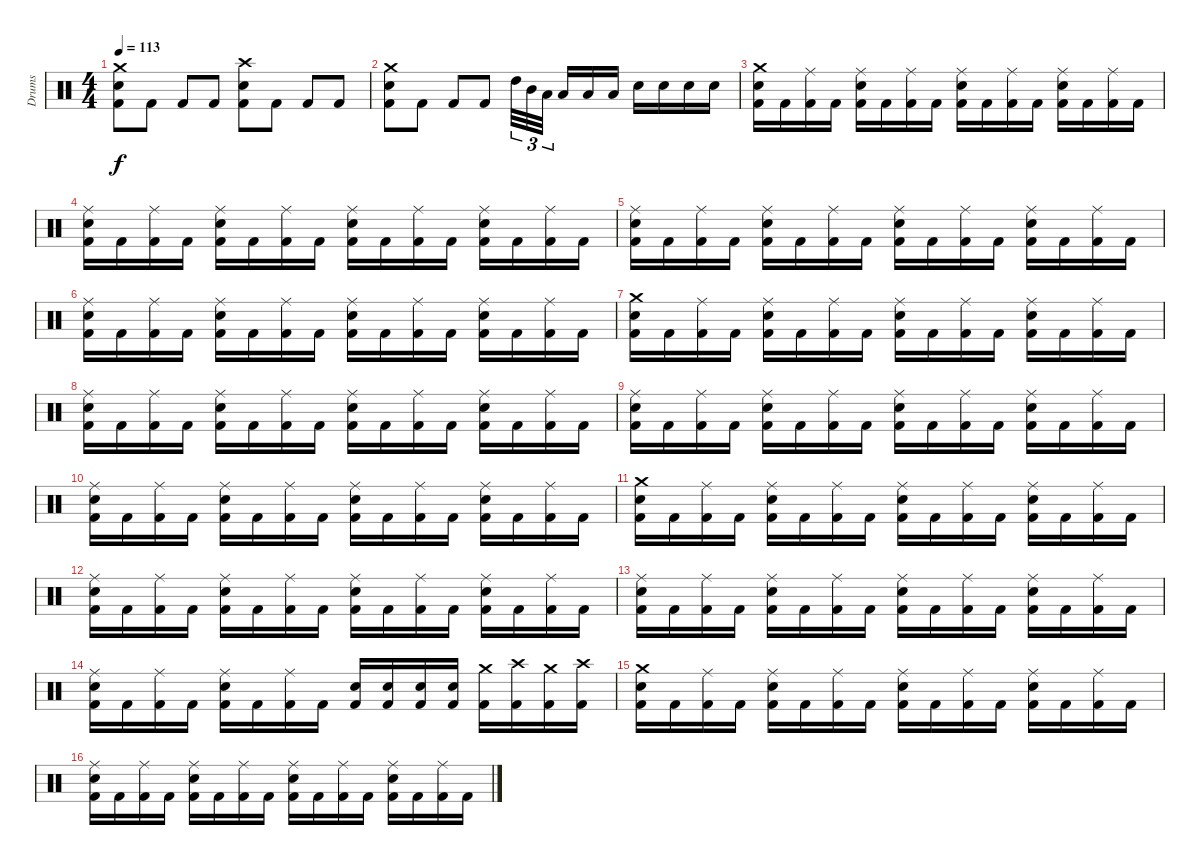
\track ("Drums" "Drums") {instrument percussion}
\staff {score}
\articulation defaults
\ts (4 4)
\tempo 113
\clef neutral
\ks c
("Kick (hit) 2" "Snare (hit) 2" "Crash medium (hit)").8{dy f} "Kick (hit) 2".8 "Kick (hit) 2".8 "Kick (hit) 2".8 ("Kick (hit) 2" "Snare (hit) 2" "Crash high (hit)").8 "Kick (hit) 2".8 "Kick (hit) 2".8 "Kick (hit) 2".8 |
("Kick (hit) 2" "Snare (hit) 2" "Crash medium (hit)").8 "Kick (hit) 2".8 "Kick (hit) 2".8 "Kick (hit) 2".8 "High Tom (hit)".32{tu (3 2)} "Mid Tom (hit)".32{tu (3 2)} "Low Tom (hit)".32{tu (3 2) beam splitsecondary} "Low Tom (hit)".16 "Low Tom (hit)".16 "Low Tom (hit)".16 "Snare (hit) 2".16 "Snare (hit) 2".16 "Snare (hit) 2".16 "Snare (hit) 2".16 |
("Kick (hit) 2" "Snare (hit) 2" "Crash medium (hit)").16 "Kick (hit) 2".16 ("Kick (hit) 2" "Ride (middle)").16 "Kick (hit) 2".16 ("Kick (hit) 2" "Snare (hit) 2" "Ride (middle)").16 "Kick (hit) 2".16 ("Kick (hit) 2" "Ride (middle)").16 "Kick (hit) 2".16 ("Kick (hit) 2" "Snare (hit) 2" "Ride (middle)").16 "Kick (hit) 2".16 ("Kick (hit) 2" "Ride (middle)").16 "Kick (hit) 2".16 ("Kick (hit) 2" "Snare (hit) 2" "Ride (middle)").16 "Kick (hit) 2".16 ("Kick (hit) 2" "Ride (middle)").16 "Kick (hit) 2".16 |
("Kick (hit) 2" "Snare (hit) 2" "Ride (middle)").16 "Kick (hit) 2".16 ("Kick (hit) 2" "Ride (middle)").16 "Kick (hit) 2".16 ("Kick (hit) 2" "Snare (hit) 2" "Ride (middle)").16 "Kick (hit) 2".16 ("Kick (hit) 2" "Ride (middle)").16 "Kick (hit) 2".16 ("Kick (hit) 2" "Snare (hit) 2" "Ride (middle)").16 "Kick (hit) 2".16 ("Kick (hit) 2" "Ride (middle)").16 "Kick (hit) 2".16 ("Kick (hit) 2" "Snare (hit) 2" "Ride (middle)").16 "Kick (hit) 2".16 ("Kick (hit) 2" "Ride (middle)").16 "Kick (hit) 2".16 |
("Kick (hit) 2" "Snare (hit) 2" "Ride (middle)").16 "Kick (hit) 2".16 ("Kick (hit) 2" "Ride (middle)").16 "Kick (hit) 2".16 ("Kick (hit) 2" "Snare (hit) 2" "Ride (middle)").16 "Kick (hit) 2".16 ("Kick (hit) 2" "Ride (middle)").16 "Kick (hit) 2".16 ("Kick (hit) 2" "Snare (hit) 2" "Ride (middle)").16 "Kick (hit) 2".16 ("Kick (hit) 2" "Ride (middle)").16 "Kick (hit) 2".16 ("Kick (hit) 2" "Snare (hit) 2" "Ride (middle)").16 "Kick (hit) 2".16 ("Kick (hit) 2" "Ride (middle)").16 "Kick (hit) 2".16 |
("Kick (hit) 2" "Snare (hit) 2" "Ride (middle)").16 "Kick (hit) 2".16 ("Kick (hit) 2" "Ride (middle)").16 "Kick (hit) 2".16 ("Kick (hit) 2" "Snare (hit) 2" "Ride (middle)").16 "Kick (hit) 2".16 ("Kick (hit) 2" "Ride (middle)").16 "Kick (hit) 2".16 ("Kick (hit) 2" "Snare (hit) 2" "Ride (middle)").16 "Kick (hit) 2".16 ("Kick (hit) 2" "Ride (middle)").16 "Kick (hit) 2".16 ("Kick (hit) 2" "Snare (hit) 2" "Ride (middle)").16 "Kick (hit) 2".16 ("Kick (hit) 2" "Ride (middle)").16 "Kick (hit) 2".16 |
("Kick (hit) 2" "Snare (hit) 2" "Crash medium (hit)").16 "Kick (hit) 2".16 ("Kick (hit) 2" "Ride (middle)").16 "Kick (hit) 2".16 ("Kick (hit) 2" "Snare (hit) 2" "Ride (middle)").16 "Kick (hit) 2".16 ("Kick (hit) 2" "Ride (middle)").16 "Kick (hit) 2".16 ("Kick (hit) 2" "Snare (hit) 2" "Ride (middle)").16 "Kick (hit) 2".16 ("Kick (hit) 2" "Ride (middle)").16 "Kick (hit) 2".16 ("Kick (hit) 2" "Snare (hit) 2" "Ride (middle)").16 "Kick (hit) 2".16 ("Kick (hit) 2" "Ride (middle)").16 "Kick (hit) 2".16 |
("Kick (hit) 2" "Snare (hit) 2" "Ride (middle)").16 "Kick (hit) 2".16 ("Kick (hit) 2" "Ride (middle)").16 "Kick (hit) 2".16 ("Kick (hit) 2" "Snare (hit) 2" "Ride (middle)").16 "Kick (hit) 2".16 ("Kick (hit) 2" "Ride (middle)").16 "Kick (hit) 2".16 ("Kick (hit) 2" "Snare (hit) 2" "Ride (middle)").16 "Kick (hit) 2".16 ("Kick (hit) 2" "Ride (middle)").16 "Kick (hit) 2".16 ("Kick (hit) 2" "Snare (hit) 2" "Ride (middle)").16 "Kick (hit) 2".16 ("Kick (hit) 2" "Ride (middle)").16 "Kick (hit) 2".16 |
("Kick (hit) 2" "Snare (hit) 2" "Ride (middle)").16 "Kick (hit) 2".16 ("Kick (hit) 2" "Ride (middle)").16 "Kick (hit) 2".16 ("Kick (hit) 2" "Snare (hit) 2" "Ride (middle)").16 "Kick (hit) 2".16 ("Kick (hit) 2" "Ride (middle)").16 "Kick (hit) 2".16 ("Kick (hit) 2" "Snare (hit) 2" "Ride (middle)").16 "Kick (hit) 2".16 ("Kick (hit) 2" "Ride (middle)").16 "Kick (hit) 2".16 ("Kick (hit) 2" "Snare (hit) 2" "Ride (middle)").16 "Kick (hit) 2".16 ("Kick (hit) 2" "Ride (middle)").16 "Kick (hit) 2".16 |
("Kick (hit) 2" "Snare (hit) 2" "Ride (middle)").16 "Kick (hit) 2".16 ("Kick (hit) 2" "Ride (middle)").16 "Kick (hit) 2".16 ("Kick (hit) 2" "Snare (hit) 2" "Ride (middle)").16 "Kick (hit) 2".16 ("Kick (hit) 2" "Ride (middle)").16 "Kick (hit) 2".16 ("Kick (hit) 2" "Snare (hit) 2" "Ride (middle)").16 "Kick (hit) 2".16 ("Kick (hit) 2" "Ride (middle)").16 "Kick (hit) 2".16 ("Kick (hit) 2" "Snare (hit) 2" "Ride (middle)").16 "Kick (hit) 2".16 ("Kick (hit) 2" "Ride (middle)").16 "Kick (hit) 2".16 |
("Kick (hit) 2" "Snare (hit) 2" "Crash medium (hit)").16 "Kick (hit) 2".16 ("Kick (hit) 2" "Ride (middle)").16 "Kick (hit) 2".16 ("Kick (hit) 2" "Snare (hit) 2" "Ride (middle)").16 "Kick (hit) 2".16 ("Kick (hit) 2" "Ride (middle)").16 "Kick (hit) 2".16 ("Kick (hit) 2" "Snare (hit) 2" "Ride (middle)").16 "Kick (hit) 2".16 ("Kick (hit) 2" "Ride (middle)").16 "Kick (hit) 2".16 ("Kick (hit) 2" "Snare (hit) 2" "Ride (middle)").16 "Kick (hit) 2".16 ("Kick (hit) 2" "Ride (middle)").16 "Kick (hit) 2".16 |
("Kick (hit) 2" "Snare (hit) 2" "Ride (middle)").16 "Kick (hit) 2".16 ("Kick (hit) 2" "Ride (middle)").16 "Kick (hit) 2".16 ("Kick (hit) 2" "Snare (hit) 2" "Ride (middle)").16 "Kick (hit) 2".16 ("Kick (hit) 2" "Ride (middle)").16 "Kick (hit) 2".16 ("Kick (hit) 2" "Snare (hit) 2" "Ride (middle)").16 "Kick (hit) 2".16 ("Kick (hit) 2" "Ride (middle)").16 "Kick (hit) 2".16 ("Kick (hit) 2" "Snare (hit) 2" "Ride (middle)").16 "Kick (hit) 2".16 ("Kick (hit) 2" "Ride (middle)").16 "Kick (hit) 2".16 |
("Kick (hit) 2" "Snare (hit) 2" "Ride (middle)").16 "Kick (hit) 2".16 ("Kick (hit) 2" "Ride (middle)").16 "Kick (hit) 2".16 ("Kick (hit) 2" "Snare (hit) 2" "Ride (middle)").16 "Kick (hit) 2".16 ("Kick (hit) 2" "Ride (middle)").16 "Kick (hit) 2".16 ("Kick (hit) 2" "Snare (hit) 2" "Ride (middle)").16 "Kick (hit) 2".16 ("Kick (hit) 2" "Ride (middle)").16 "Kick (hit) 2".16 ("Kick (hit) 2" "Snare (hit) 2" "Ride (middle)").16 "Kick (hit) 2".16 ("Kick (hit) 2" "Ride (middle)").16 "Kick (hit) 2".16 |
("Kick (hit) 2" "Snare (hit) 2" "Ride (middle)").16 "Kick (hit) 2".16 ("Kick (hit) 2" "Ride (middle)").16 "Kick (hit) 2".16 ("Kick (hit) 2" "Snare (hit) 2" "Ride (middle)").16 "Kick (hit) 2".16 ("Kick (hit) 2" "Ride (middle)").16 "Kick (hit) 2".16 ("Kick (hit) 2" "Snare (hit) 2").16 ("Kick (hit) 2" "Snare (hit) 2").16 ("Kick (hit) 2" "Snare (hit) 2").16 ("Kick (hit) 2" "Snare (hit) 2").16 ("Kick (hit) 2" "Crash medium (hit)").16 ("Kick (hit) 2" "Crash high (hit)").16 ("Kick (hit) 2" "Crash medium (hit)").16 ("Kick (hit) 2" "Crash high (hit)").16 |
("Kick (hit) 2" "Snare (hit) 2" "Crash medium (hit)").16 "Kick (hit) 2".16 ("Kick (hit) 2" "Ride (middle)").16 "Kick (hit) 2".16 ("Kick (hit) 2" "Snare (hit) 2" "Ride (middle)").16 "Kick (hit) 2".16 ("Kick (hit) 2" "Ride (middle)").16 "Kick (hit) 2".16 ("Kick (hit) 2" "Snare (hit) 2" "Ride (middle)").16 "Kick (hit) 2".16 ("Kick (hit) 2" "Ride (middle)").16 "Kick (hit) 2".16 ("Kick (hit) 2" "Snare (hit) 2" "Ride (middle)").16 "Kick (hit) 2".16 ("Kick (hit) 2" "Ride (middle)").16 "Kick (hit) 2".16 |
("Kick (hit) 2" "Snare (hit) 2" "Ride (middle)").16 "Kick (hit) 2".16 ("Kick (hit) 2" "Ride (middle)").16 "Kick (hit) 2".16 ("Kick (hit) 2" "Snare (hit) 2" "Ride (middle)").16 "Kick (hit) 2".16 ("Kick (hit) 2" "Ride (middle)").16 "Kick (hit) 2".16 ("Kick (hit) 2" "Snare (hit) 2" "Ride (middle)").16 "Kick (hit) 2".16 ("Kick (hit) 2" "Ride (middle)").16 "Kick (hit) 2".16 ("Kick (hit) 2" "Snare (hit) 2" "Ride (middle)").16 "Kick (hit) 2".16 ("Kick (hit) 2" "Ride (middle)").16 "Kick (hit) 2".16
